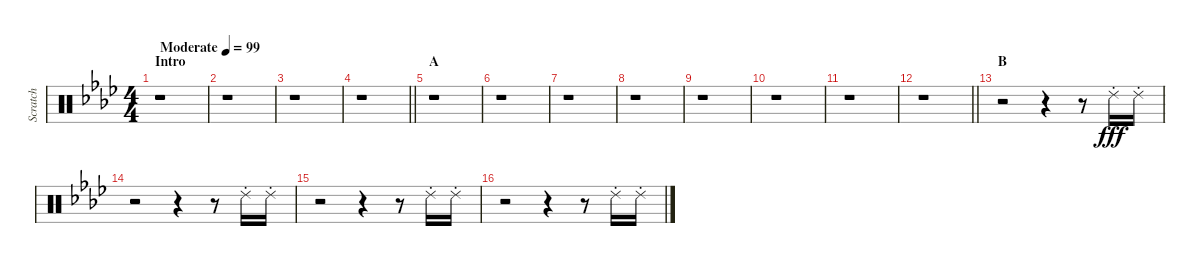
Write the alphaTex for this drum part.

\track ("Scratch" "Scratch") {instrument percussion}
\staff {score}
\articulation defaults
\ts (4 4)
\section ("" "Intro")
\tempo (99 "Moderate")
\clef neutral
\ks ab
r.1{dy fff} |
r.1 |
r.1 |
\barLineRight lightlight
r.1 |
\section ("" "A")
r.1 |
r.1 |
r.1 |
r.1 |
r.1 |
r.1 |
r.1 |
\barLineRight lightlight
r.1 |
\section ("" "B")
r.2 r.4 r.8 "Ride (choke) 2".16 "Ride (choke) 2".16 |
r.2 r.4 r.8 "Ride (choke) 2".16 "Ride (choke) 2".16 |
r.2 r.4 r.8 "Ride (choke) 2".16 "Ride (choke) 2".16 |
r.2 r.4 r.8 "Ride (choke) 2".16 "Ride (choke) 2".16
